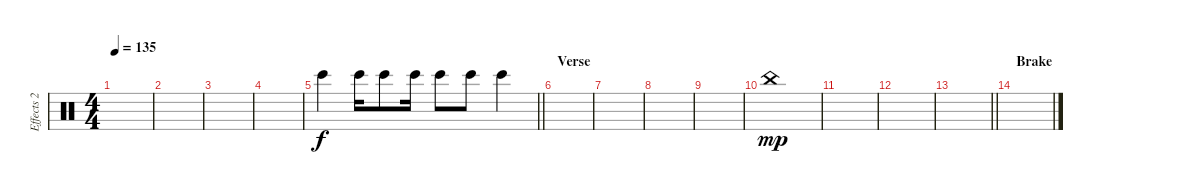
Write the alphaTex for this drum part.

\track ("Effects 2" "Effects 2") {instrument percussion}
\staff {score}
\articulation defaults
\ts (4 4)
\tempo 135
\clef neutral
\ks c
|
|
|
|
\barLineRight lightlight "Bongo High (hit)".4 "Bongo High (hit)".16 "Bongo High (hit)".8 "Bongo High (hit)".16 "Bongo High (hit)".8 "Bongo High (hit)".8 "Bongo High (hit)".4
|
\section ("" "Verse")
|
|
|
|
"China (hit)".1{dy mp} |
|
|
\barLineRight lightlight
|
\section ("" "Brake")
